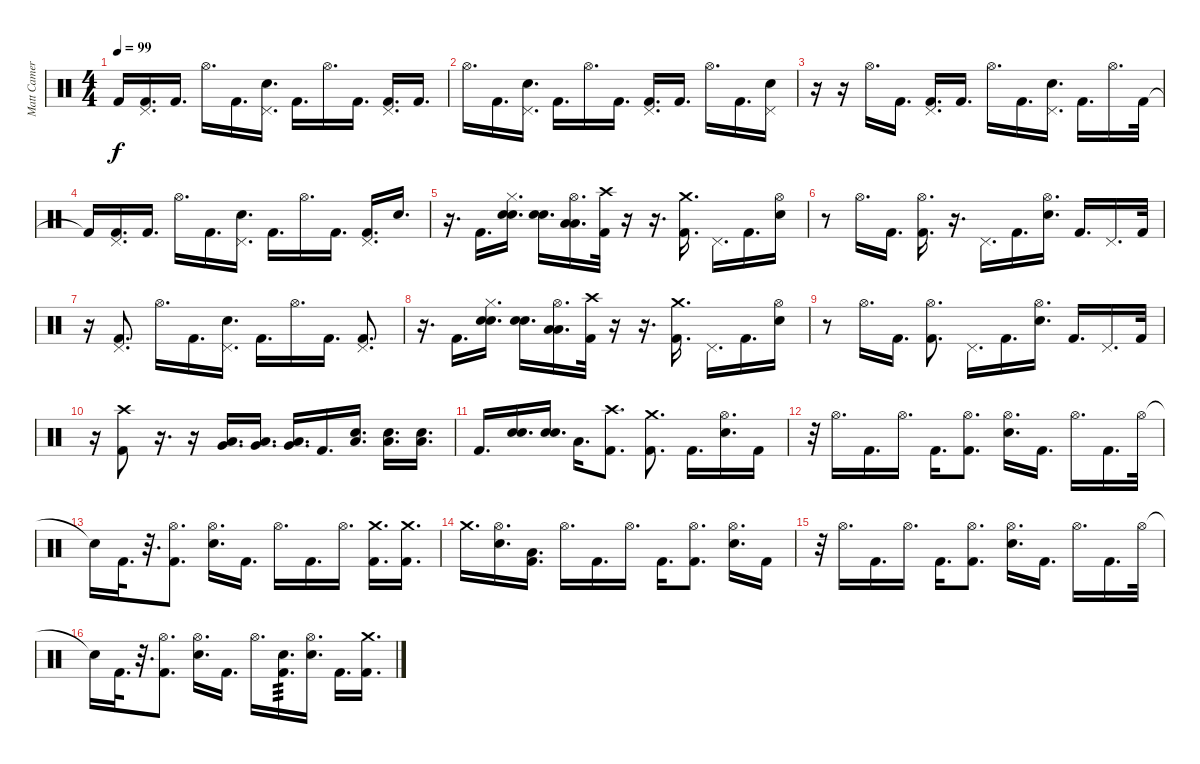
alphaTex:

\track ("Matt Cameron" "Matt Camer") {instrument percussion}
\staff {score}
\articulation defaults
\ts (4 4)
\tempo 99
\clef neutral
\ks c "Kick (hit) 2"{t}.16{dy f}
("Pedal Hi-Hat (hit)" "Kick (hit) 2").16{d} "Kick (hit) 2".16{d} "Hi-Hat (open)".16{d} "Kick (hit) 2".16{d} ("Pedal Hi-Hat (hit)" "Electric Snare (hit)").16{d} "Kick (hit) 2".16{d} "Hi-Hat (open)".16{d} "Kick (hit) 2".16{d} ("Pedal Hi-Hat (hit)" "Kick (hit) 2").16{d} "Kick (hit) 2".16{d} |
"Hi-Hat (open)".16{d} "Kick (hit) 2".16{d} ("Pedal Hi-Hat (hit)" "Electric Snare (hit)").16{d} "Kick (hit) 2".16{d} "Hi-Hat (open)".16{d} "Kick (hit) 2".16{d} ("Pedal Hi-Hat (hit)" "Kick (hit) 2").16{d} "Kick (hit) 2".16{d} "Hi-Hat (open)".16{d} "Kick (hit) 2".16{d} ("Pedal Hi-Hat (hit)" "Electric Snare (hit)").16 |
r.16 r.16 "Hi-Hat (open)".16{d} "Kick (hit) 2".16{d} ("Pedal Hi-Hat (hit)" "Kick (hit) 2").16{d} "Kick (hit) 2".16{d} "Hi-Hat (open)".16{d} "Kick (hit) 2".16{d} ("Pedal Hi-Hat (hit)" "Electric Snare (hit)").16{d} "Kick (hit) 2".16{d} "Hi-Hat (open)".16{d} "Kick (hit) 2".32 |
"Kick (hit) 2"{t}.16 ("Pedal Hi-Hat (hit)" "Kick (hit) 2").16{d} "Kick (hit) 2".16{d} "Hi-Hat (open)".16{d} "Kick (hit) 2".16{d} ("Pedal Hi-Hat (hit)" "Electric Snare (hit)").16{d} "Kick (hit) 2".16{d} "Hi-Hat (open)".16{d} "Kick (hit) 2".16{d} ("Pedal Hi-Hat (hit)" "Kick (hit) 2").16{d} "Electric Snare (hit)".16{d} |
r.16{d} "Kick (hit) 2".16{d} ("Hi-Hat (closed)" "Electric Snare (hit)" "Electric Snare (hit)").16{d} ("Electric Snare (hit)" "Electric Snare (hit)").16{d} ("Hi-Hat (open)" "Low Floor Tom (hit)" "Low Floor Tom (hit)").16{d} ("Crash high (hit)" "Kick (hit) 2").32 r.16 r.16{d} ("Crash medium (hit)" "Kick (hit) 2").16{d} "Pedal Hi-Hat (hit)".16{d} "Kick (hit) 2".16{d} ("Hi-Hat (open)" "Electric Snare (hit)").16 |
r.8 "Hi-Hat (open)".16{d} "Kick (hit) 2".16{d} ("Hi-Hat (open)" "Kick (hit) 2").16{d} r.16{d} "Pedal Hi-Hat (hit)".16{d} "Kick (hit) 2".16{d} ("Hi-Hat (open)" "Electric Snare (hit)").16{d} "Kick (hit) 2".16{d} "Pedal Hi-Hat (hit)".16{d} "Kick (hit) 2".32 |
r.16 ("Pedal Hi-Hat (hit)" "Kick (hit) 2").8{d} "Hi-Hat (open)".16{d} "Kick (hit) 2".16{d} ("Pedal Hi-Hat (hit)" "Electric Snare (hit)").16{d} "Kick (hit) 2".16{d} "Hi-Hat (open)".16{d} "Kick (hit) 2".16{d} ("Pedal Hi-Hat (hit)" "Kick (hit) 2").8{d} |
r.16{d} "Kick (hit) 2".16{d} ("Hi-Hat (closed)" "Electric Snare (hit)" "Electric Snare (hit)").16{d} ("Electric Snare (hit)" "Electric Snare (hit)").16{d} ("Hi-Hat (open)" "Low Floor Tom (hit)" "Low Floor Tom (hit)").16{d} ("Crash high (hit)" "Kick (hit) 2").32 r.16 r.16{d} ("Crash medium (hit)" "Kick (hit) 2").16{d} "Pedal Hi-Hat (hit)".16{d} "Kick (hit) 2".16{d} ("Hi-Hat (open)" "Electric Snare (hit)").16 |
r.8 "Hi-Hat (open)".16{d} "Kick (hit) 2".16{d} ("Hi-Hat (open)" "Kick (hit) 2").8{d} "Pedal Hi-Hat (hit)".16{d} "Kick (hit) 2".16{d} ("Hi-Hat (open)" "Electric Snare (hit)").16{d} "Kick (hit) 2".16{d} "Pedal Hi-Hat (hit)".16{d} "Kick (hit) 2".32 |
r.16 ("Crash high (hit)" "Kick (hit) 2").8 r.16{d} r.16 ("Low Floor Tom (hit)" "Very Low Tom (hit)").16{d} ("Low Floor Tom (hit)" "Very Low Tom (hit)").16{d} ("Low Floor Tom (hit)" "Very Low Tom (hit)").16{d} "Kick (hit) 2".16{d} ("Low Floor Tom (hit)" "Electric Snare (hit)").16{d} ("Low Floor Tom (hit)" "Electric Snare (hit)").16{d} ("Low Floor Tom (hit)" "Electric Snare (hit)").16{d} |
"Kick (hit) 2".16{d} ("Electric Snare (hit)" "Electric Snare (hit)").16{d} ("Electric Snare (hit)" "Electric Snare (hit)").16{d} "Low Tom (hit)".16{d} ("Crash high (hit)" "Kick (hit) 2").8{d} ("Crash medium (hit)" "Kick (hit) 2").8{d} "Kick (hit) 2".16{d} ("Hi-Hat (open)" "Electric Snare (hit)").16{d} "Kick (hit) 2".16 |
r.32 "Hi-Hat (open)".16{d} "Kick (hit) 2".16{d} "Hi-Hat (open)".16{d} "Kick (hit) 2".16{d} ("Hi-Hat (open)" "Kick (hit) 2").8{d} ("Hi-Hat (open)" "Electric Snare (hit)").16{d} "Kick (hit) 2".16{d} "Hi-Hat (open)".16{d} "Kick (hit) 2".16{d} "Hi-Hat (open)".32 |
"Snare (hit)"{t}.16 "Kick (hit) 2".32{d} r.32{d} ("Hi-Hat (open)" "Kick (hit) 2").8{d} ("Hi-Hat (open)" "Electric Snare (hit)").16{d} "Kick (hit) 2".16{d} "Hi-Hat (open)".16{d} "Kick (hit) 2".16{d} "Hi-Hat (open)".16{d} ("Crash medium (hit)" "Kick (hit) 2").16{d} ("Crash medium (hit)" "Kick (hit) 2").16{d} |
"Crash medium (hit)".16{d} ("Hi-Hat (open)" "Electric Snare (hit)").16{d} ("Low Tom (hit)" "Kick (hit) 2").16{d} "Hi-Hat (open)".16{d} "Kick (hit) 2".16{d} "Hi-Hat (open)".16{d} "Kick (hit) 2".16{d} ("Hi-Hat (open)" "Kick (hit) 2").8{d} ("Hi-Hat (open)" "Electric Snare (hit)").16{d} "Kick (hit) 2".16 |
r.32 "Hi-Hat (open)".16{d} "Kick (hit) 2".16{d} "Hi-Hat (open)".16{d} "Kick (hit) 2".16{d} ("Hi-Hat (open)" "Kick (hit) 2").8{d} ("Hi-Hat (open)" "Electric Snare (hit)").16{d} "Kick (hit) 2".16{d} "Hi-Hat (open)".16{d} "Kick (hit) 2".16{d} "Hi-Hat (open)".32 |
"Snare (hit)"{t}.16 "Kick (hit) 2".32{d} r.32{d} ("Hi-Hat (open)" "Kick (hit) 2").8{d} ("Hi-Hat (open)" "Electric Snare (hit)").16{d} "Kick (hit) 2".16{d} "Hi-Hat (open)".16{d} ("Electric Snare (hit)" "Kick (hit) 2").16{d tp 3} ("Hi-Hat (open)" "Electric Snare (hit)").16{d} "Kick (hit) 2".16{d} ("Crash medium (hit)" "Kick (hit) 2").16{d}
